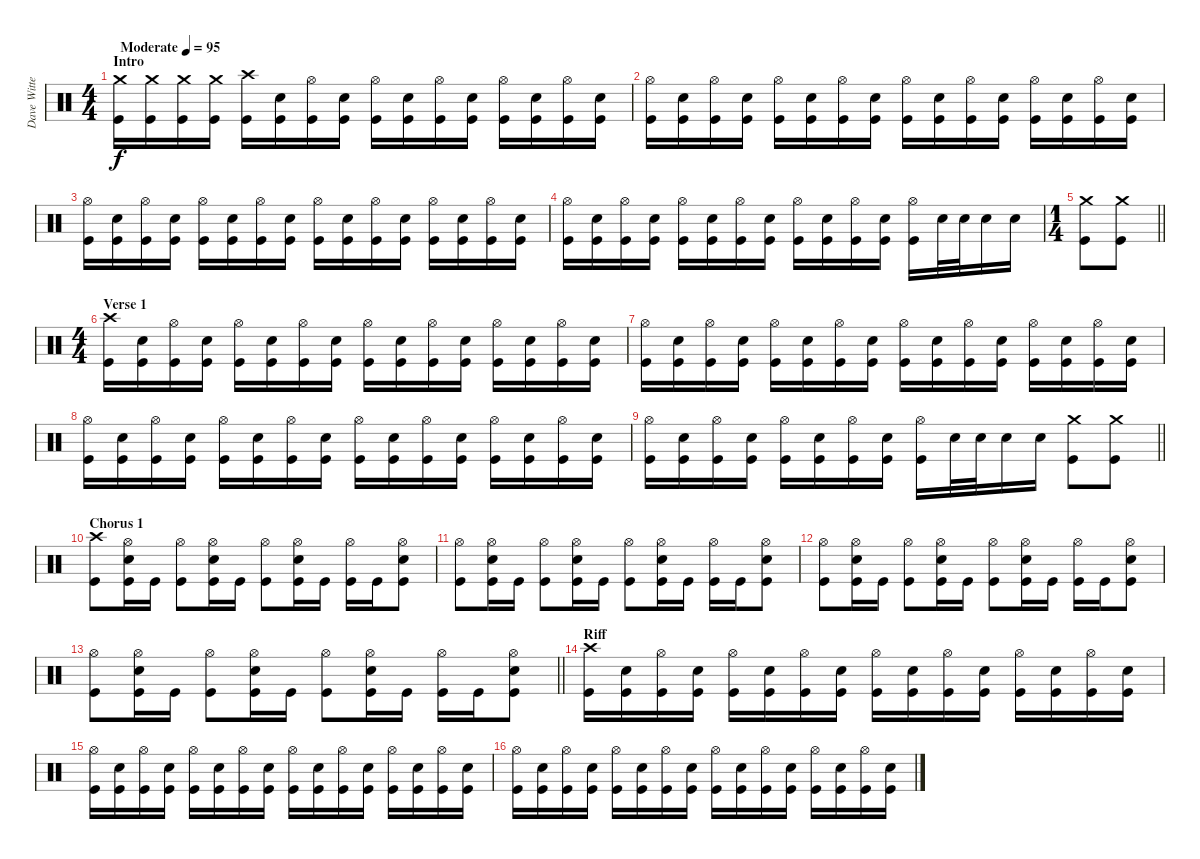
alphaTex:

\track ("Dave Witte" "Dave Witte") {instrument percussion}
\staff {score}
\articulation defaults
\ts (4 4)
\section ("" "Intro")
\tempo (95 "Moderate")
\clef neutral
\ks c
("Kick (hit)" "Crash medium (hit)").16{dy f} ("Kick (hit)" "Crash medium (hit)").16 ("Kick (hit)" "Crash medium (hit)").16 ("Kick (hit)" "Crash medium (hit)").16 ("Kick (hit)" "Crash high (hit)").16 ("Kick (hit)" "Electric Snare (hit)").16 ("Kick (hit)" "Hi-Hat (open)").16 ("Kick (hit)" "Electric Snare (hit)").16 ("Kick (hit)" "Hi-Hat (open)").16 ("Kick (hit)" "Electric Snare (hit)").16 ("Kick (hit)" "Hi-Hat (open)").16 ("Kick (hit)" "Electric Snare (hit)").16 ("Kick (hit)" "Hi-Hat (open)").16 ("Kick (hit)" "Electric Snare (hit)").16 ("Kick (hit)" "Hi-Hat (open)").16 ("Kick (hit)" "Electric Snare (hit)").16 |
("Kick (hit)" "Hi-Hat (open)").16 ("Kick (hit)" "Electric Snare (hit)").16 ("Kick (hit)" "Hi-Hat (open)").16 ("Kick (hit)" "Electric Snare (hit)").16 ("Kick (hit)" "Hi-Hat (open)").16 ("Kick (hit)" "Electric Snare (hit)").16 ("Kick (hit)" "Hi-Hat (open)").16 ("Kick (hit)" "Electric Snare (hit)").16 ("Kick (hit)" "Hi-Hat (open)").16 ("Kick (hit)" "Electric Snare (hit)").16 ("Kick (hit)" "Hi-Hat (open)").16 ("Kick (hit)" "Electric Snare (hit)").16 ("Kick (hit)" "Hi-Hat (open)").16 ("Kick (hit)" "Electric Snare (hit)").16 ("Kick (hit)" "Hi-Hat (open)").16 ("Kick (hit)" "Electric Snare (hit)").16 |
("Kick (hit)" "Hi-Hat (open)").16 ("Kick (hit)" "Electric Snare (hit)").16 ("Kick (hit)" "Hi-Hat (open)").16 ("Kick (hit)" "Electric Snare (hit)").16 ("Kick (hit)" "Hi-Hat (open)").16 ("Kick (hit)" "Electric Snare (hit)").16 ("Kick (hit)" "Hi-Hat (open)").16 ("Kick (hit)" "Electric Snare (hit)").16 ("Kick (hit)" "Hi-Hat (open)").16 ("Kick (hit)" "Electric Snare (hit)").16 ("Kick (hit)" "Hi-Hat (open)").16 ("Kick (hit)" "Electric Snare (hit)").16 ("Kick (hit)" "Hi-Hat (open)").16 ("Kick (hit)" "Electric Snare (hit)").16 ("Kick (hit)" "Hi-Hat (open)").16 ("Kick (hit)" "Electric Snare (hit)").16 |
("Kick (hit)" "Hi-Hat (open)").16 ("Kick (hit)" "Electric Snare (hit)").16 ("Kick (hit)" "Hi-Hat (open)").16 ("Kick (hit)" "Electric Snare (hit)").16 ("Kick (hit)" "Hi-Hat (open)").16 ("Kick (hit)" "Electric Snare (hit)").16 ("Kick (hit)" "Hi-Hat (open)").16 ("Kick (hit)" "Electric Snare (hit)").16 ("Kick (hit)" "Hi-Hat (open)").16 ("Kick (hit)" "Electric Snare (hit)").16 ("Kick (hit)" "Hi-Hat (open)").16 ("Kick (hit)" "Electric Snare (hit)").16 ("Kick (hit)" "Hi-Hat (open)").16 "Electric Snare (hit)".32 "Electric Snare (hit)".32 "Electric Snare (hit)".16 "Electric Snare (hit)".16 |
\ts (1 4)
\barLineRight lightlight
("Kick (hit)" "Crash medium (hit)").8 ("Kick (hit)" "Crash medium (hit)").8 |
\ts (4 4)
\section ("" "Verse 1")
("Kick (hit)" "Crash high (hit)").16 ("Kick (hit)" "Electric Snare (hit)").16 ("Kick (hit)" "Hi-Hat (open)").16 ("Kick (hit)" "Electric Snare (hit)").16 ("Kick (hit)" "Hi-Hat (open)").16 ("Kick (hit)" "Electric Snare (hit)").16 ("Kick (hit)" "Hi-Hat (open)").16 ("Kick (hit)" "Electric Snare (hit)").16 ("Kick (hit)" "Hi-Hat (open)").16 ("Kick (hit)" "Electric Snare (hit)").16 ("Kick (hit)" "Hi-Hat (open)").16 ("Kick (hit)" "Electric Snare (hit)").16 ("Kick (hit)" "Hi-Hat (open)").16 ("Kick (hit)" "Electric Snare (hit)").16 ("Kick (hit)" "Hi-Hat (open)").16 ("Kick (hit)" "Electric Snare (hit)").16 |
("Kick (hit)" "Hi-Hat (open)").16 ("Kick (hit)" "Electric Snare (hit)").16 ("Kick (hit)" "Hi-Hat (open)").16 ("Kick (hit)" "Electric Snare (hit)").16 ("Kick (hit)" "Hi-Hat (open)").16 ("Kick (hit)" "Electric Snare (hit)").16 ("Kick (hit)" "Hi-Hat (open)").16 ("Kick (hit)" "Electric Snare (hit)").16 ("Kick (hit)" "Hi-Hat (open)").16 ("Kick (hit)" "Electric Snare (hit)").16 ("Kick (hit)" "Hi-Hat (open)").16 ("Kick (hit)" "Electric Snare (hit)").16 ("Kick (hit)" "Hi-Hat (open)").16 ("Kick (hit)" "Electric Snare (hit)").16 ("Kick (hit)" "Hi-Hat (open)").16 ("Kick (hit)" "Electric Snare (hit)").16 |
("Kick (hit)" "Hi-Hat (open)").16 ("Kick (hit)" "Electric Snare (hit)").16 ("Kick (hit)" "Hi-Hat (open)").16 ("Kick (hit)" "Electric Snare (hit)").16 ("Kick (hit)" "Hi-Hat (open)").16 ("Kick (hit)" "Electric Snare (hit)").16 ("Kick (hit)" "Hi-Hat (open)").16 ("Kick (hit)" "Electric Snare (hit)").16 ("Kick (hit)" "Hi-Hat (open)").16 ("Kick (hit)" "Electric Snare (hit)").16 ("Kick (hit)" "Hi-Hat (open)").16 ("Kick (hit)" "Electric Snare (hit)").16 ("Kick (hit)" "Hi-Hat (open)").16 ("Kick (hit)" "Electric Snare (hit)").16 ("Kick (hit)" "Hi-Hat (open)").16 ("Kick (hit)" "Electric Snare (hit)").16 |
\barLineRight lightlight
("Kick (hit)" "Hi-Hat (open)").16 ("Kick (hit)" "Electric Snare (hit)").16 ("Kick (hit)" "Hi-Hat (open)").16 ("Kick (hit)" "Electric Snare (hit)").16 ("Kick (hit)" "Hi-Hat (open)").16 ("Kick (hit)" "Electric Snare (hit)").16 ("Kick (hit)" "Hi-Hat (open)").16 ("Kick (hit)" "Electric Snare (hit)").16 ("Kick (hit)" "Hi-Hat (open)").16 "Electric Snare (hit)".32 "Electric Snare (hit)".32 "Electric Snare (hit)".16 "Electric Snare (hit)".16 ("Kick (hit)" "Crash medium (hit)").8 ("Kick (hit)" "Crash medium (hit)").8 |
\section ("" "Chorus 1")
("Kick (hit)" "Crash high (hit)").8 ("Kick (hit)" "Electric Snare (hit)" "Hi-Hat (open)").16 "Kick (hit)".16 ("Kick (hit)" "Hi-Hat (open)").8 ("Kick (hit)" "Electric Snare (hit)" "Hi-Hat (open)").16 "Kick (hit)".16 ("Kick (hit)" "Hi-Hat (open)").8 ("Kick (hit)" "Electric Snare (hit)" "Hi-Hat (open)").16 "Kick (hit)".16 ("Kick (hit)" "Hi-Hat (open)").16 "Kick (hit)".16 ("Kick (hit)" "Electric Snare (hit)" "Hi-Hat (open)").8 |
("Kick (hit)" "Hi-Hat (open)").8 ("Kick (hit)" "Electric Snare (hit)" "Hi-Hat (open)").16 "Kick (hit)".16 ("Kick (hit)" "Hi-Hat (open)").8 ("Kick (hit)" "Electric Snare (hit)" "Hi-Hat (open)").16 "Kick (hit)".16 ("Kick (hit)" "Hi-Hat (open)").8 ("Kick (hit)" "Electric Snare (hit)" "Hi-Hat (open)").16 "Kick (hit)".16 ("Kick (hit)" "Hi-Hat (open)").16 "Kick (hit)".16 ("Kick (hit)" "Electric Snare (hit)" "Hi-Hat (open)").8 |
("Kick (hit)" "Hi-Hat (open)").8 ("Kick (hit)" "Electric Snare (hit)" "Hi-Hat (open)").16 "Kick (hit)".16 ("Kick (hit)" "Hi-Hat (open)").8 ("Kick (hit)" "Electric Snare (hit)" "Hi-Hat (open)").16 "Kick (hit)".16 ("Kick (hit)" "Hi-Hat (open)").8 ("Kick (hit)" "Electric Snare (hit)" "Hi-Hat (open)").16 "Kick (hit)".16 ("Kick (hit)" "Hi-Hat (open)").16 "Kick (hit)".16 ("Kick (hit)" "Electric Snare (hit)" "Hi-Hat (open)").8 |
\barLineRight lightlight
("Kick (hit)" "Hi-Hat (open)").8 ("Kick (hit)" "Electric Snare (hit)" "Hi-Hat (open)").16 "Kick (hit)".16 ("Kick (hit)" "Hi-Hat (open)").8 ("Kick (hit)" "Electric Snare (hit)" "Hi-Hat (open)").16 "Kick (hit)".16 ("Kick (hit)" "Hi-Hat (open)").8 ("Kick (hit)" "Electric Snare (hit)" "Hi-Hat (open)").16 "Kick (hit)".16 ("Kick (hit)" "Hi-Hat (open)").16 "Kick (hit)".16 ("Kick (hit)" "Electric Snare (hit)" "Hi-Hat (open)").8 |
\section ("" "Riff ")
("Kick (hit)" "Crash high (hit)").16 ("Kick (hit)" "Electric Snare (hit)").16 ("Kick (hit)" "Hi-Hat (open)").16 ("Kick (hit)" "Electric Snare (hit)").16 ("Kick (hit)" "Hi-Hat (open)").16 ("Kick (hit)" "Electric Snare (hit)").16 ("Kick (hit)" "Hi-Hat (open)").16 ("Kick (hit)" "Electric Snare (hit)").16 ("Kick (hit)" "Hi-Hat (open)").16 ("Kick (hit)" "Electric Snare (hit)").16 ("Kick (hit)" "Hi-Hat (open)").16 ("Kick (hit)" "Electric Snare (hit)").16 ("Kick (hit)" "Hi-Hat (open)").16 ("Kick (hit)" "Electric Snare (hit)").16 ("Kick (hit)" "Hi-Hat (open)").16 ("Kick (hit)" "Electric Snare (hit)").16 |
("Kick (hit)" "Hi-Hat (open)").16 ("Kick (hit)" "Electric Snare (hit)").16 ("Kick (hit)" "Hi-Hat (open)").16 ("Kick (hit)" "Electric Snare (hit)").16 ("Kick (hit)" "Hi-Hat (open)").16 ("Kick (hit)" "Electric Snare (hit)").16 ("Kick (hit)" "Hi-Hat (open)").16 ("Kick (hit)" "Electric Snare (hit)").16 ("Kick (hit)" "Hi-Hat (open)").16 ("Kick (hit)" "Electric Snare (hit)").16 ("Kick (hit)" "Hi-Hat (open)").16 ("Kick (hit)" "Electric Snare (hit)").16 ("Kick (hit)" "Hi-Hat (open)").16 ("Kick (hit)" "Electric Snare (hit)").16 ("Kick (hit)" "Hi-Hat (open)").16 ("Kick (hit)" "Electric Snare (hit)").16 |
("Kick (hit)" "Hi-Hat (open)").16 ("Kick (hit)" "Electric Snare (hit)").16 ("Kick (hit)" "Hi-Hat (open)").16 ("Kick (hit)" "Electric Snare (hit)").16 ("Kick (hit)" "Hi-Hat (open)").16 ("Kick (hit)" "Electric Snare (hit)").16 ("Kick (hit)" "Hi-Hat (open)").16 ("Kick (hit)" "Electric Snare (hit)").16 ("Kick (hit)" "Hi-Hat (open)").16 ("Kick (hit)" "Electric Snare (hit)").16 ("Kick (hit)" "Hi-Hat (open)").16 ("Kick (hit)" "Electric Snare (hit)").16 ("Kick (hit)" "Hi-Hat (open)").16 ("Kick (hit)" "Electric Snare (hit)").16 ("Kick (hit)" "Hi-Hat (open)").16 ("Kick (hit)" "Electric Snare (hit)").16
